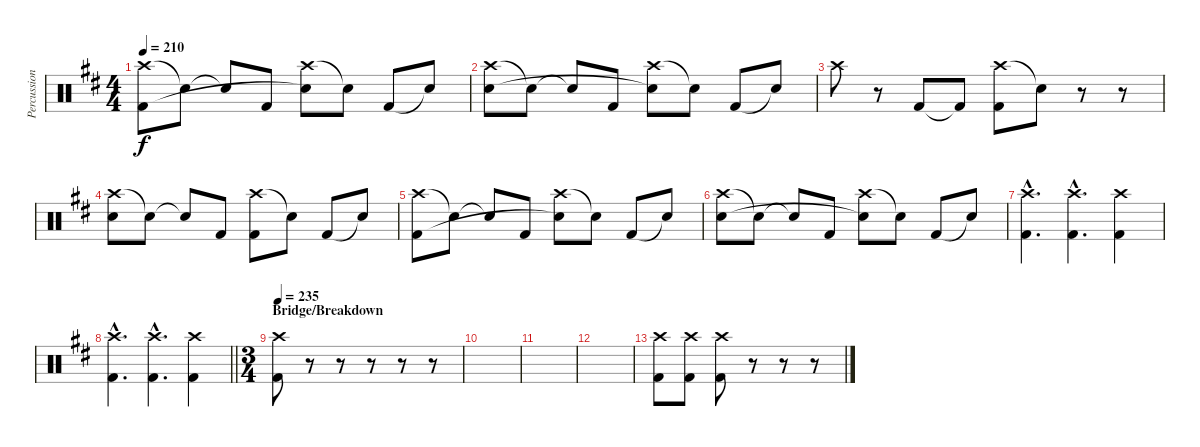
\track ("Percussion" "Percussion") {instrument percussion}
\staff {score}
\articulation defaults
\ts (4 4)
\tempo 210
\clef neutral
\ks d
("Crash high (hit)" "Kick (hit) 2").8{dy f} "Snare (hit)"{t}.8 "Snare (hit)"{t}.8 "Kick (hit) 2".8 ("Crash high (hit)" "Snare (hit)"{t}).8 "Snare (hit)"{t}.8 "Kick (hit) 2".8 "Snare (hit)"{t}.8 |
("Crash high (hit)" "Electric Snare (hit)").8 "Snare (hit)"{t}.8 "Snare (hit)"{t}.8 "Kick (hit) 2".8 ("Crash high (hit)" "Snare (hit)"{t}).8 "Snare (hit)"{t}.8 "Kick (hit) 2".8 "Snare (hit)"{t}.8 |
"Crash high (hit)".8 r.8 "Kick (hit) 2".8 "Kick (hit) 2"{t}.8 ("Crash high (hit)" "Kick (hit) 2").8 "Snare (hit)"{t}.8 r.8 r.8 |
("Crash high (hit)" "Electric Snare (hit)").8 "Snare (hit)"{t}.8 "Snare (hit)"{t}.8 "Kick (hit) 2".8 ("Crash high (hit)" "Kick (hit) 2").8 "Snare (hit)"{t}.8 "Kick (hit) 2".8 "Snare (hit)"{t}.8 |
("Crash high (hit)" "Kick (hit) 2").8 "Snare (hit)"{t}.8 "Snare (hit)"{t}.8 "Kick (hit) 2".8 ("Crash high (hit)" "Snare (hit)"{t}).8 "Snare (hit)"{t}.8 "Kick (hit) 2".8 "Snare (hit)"{t}.8 |
("Crash high (hit)" "Electric Snare (hit)").8 "Snare (hit)"{t}.8 "Snare (hit)"{t}.8 "Kick (hit) 2".8 ("Crash high (hit)" "Snare (hit)"{t}).8 "Snare (hit)"{t}.8 "Kick (hit) 2".8 "Snare (hit)"{t}.8 |
("Crash high (hit)"{hac} "Kick (hit) 2"{hac}).4{d} ("Crash high (hit)"{hac} "Kick (hit) 2"{hac}).4{d} ("Crash high (hit)" "Kick (hit) 2").4 |
\barLineRight lightlight
("Crash high (hit)"{hac} "Kick (hit) 2"{hac}).4{d} ("Crash high (hit)"{hac} "Kick (hit) 2"{hac}).4{d} ("Crash high (hit)" "Kick (hit) 2").4 |
\ts (3 4)
\section ("" "Bridge/Breakdown")
\tempo 235
("Crash high (hit)" "Kick (hit) 2").8 r.8 r.8 r.8 r.8 r.8 |
|
|
|
("Crash high (hit)" "Kick (hit) 2").8 ("Crash high (hit)" "Kick (hit) 2").8 ("Crash high (hit)" "Kick (hit) 2").8 r.8 r.8 r.8
